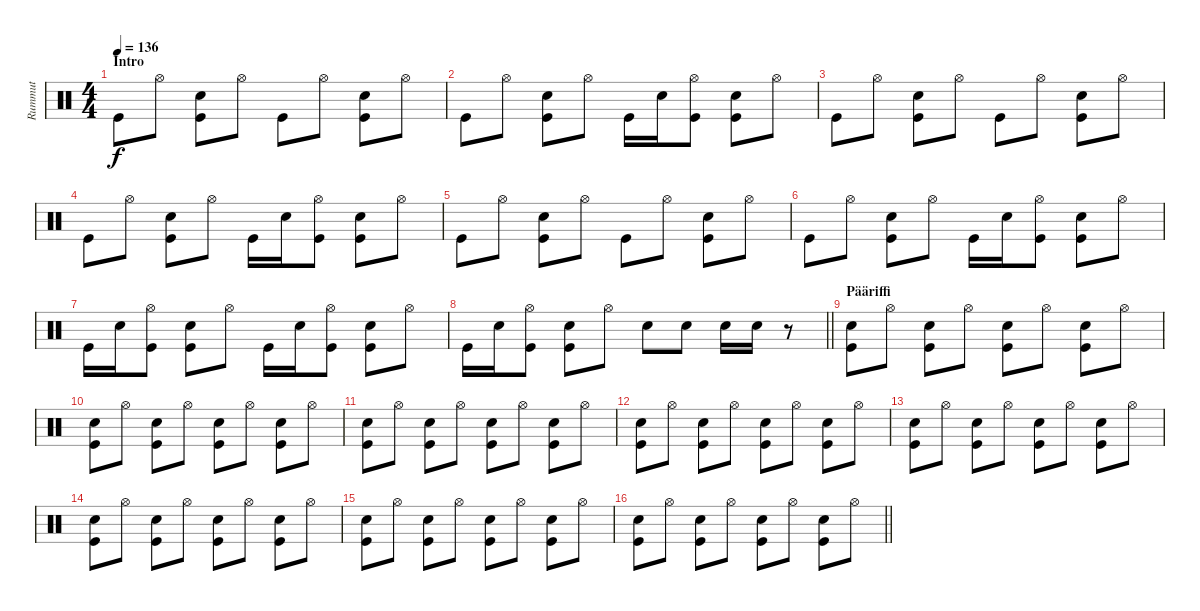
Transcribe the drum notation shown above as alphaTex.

\track ("Rummut" "Rummut") {instrument percussion}
\staff {score}
\articulation defaults
\ts (4 4)
\section ("" "Intro")
\tempo 136
\clef neutral
\ks c "Kick (hit)".8{dy f} "Hi-Hat (open)".8
("Electric Snare (hit)" "Kick (hit)").8 "Hi-Hat (open)".8 "Kick (hit)".8 "Hi-Hat (open)".8 ("Electric Snare (hit)" "Kick (hit)").8 "Hi-Hat (open)".8 |
"Kick (hit)".8 "Hi-Hat (open)".8 ("Electric Snare (hit)" "Kick (hit)").8 "Hi-Hat (open)".8 "Kick (hit)".16 "Electric Snare (hit)".16 ("Hi-Hat (open)" "Kick (hit)").8 ("Electric Snare (hit)" "Kick (hit)").8 "Hi-Hat (open)".8 |
"Kick (hit)".8 "Hi-Hat (open)".8 ("Electric Snare (hit)" "Kick (hit)").8 "Hi-Hat (open)".8 "Kick (hit)".8 "Hi-Hat (open)".8 ("Electric Snare (hit)" "Kick (hit)").8 "Hi-Hat (open)".8 |
"Kick (hit)".8 "Hi-Hat (open)".8 ("Electric Snare (hit)" "Kick (hit)").8 "Hi-Hat (open)".8 "Kick (hit)".16 "Electric Snare (hit)".16 ("Hi-Hat (open)" "Kick (hit)").8 ("Electric Snare (hit)" "Kick (hit)").8 "Hi-Hat (open)".8 |
"Kick (hit)".8 "Hi-Hat (open)".8 ("Electric Snare (hit)" "Kick (hit)").8 "Hi-Hat (open)".8 "Kick (hit)".8 "Hi-Hat (open)".8 ("Electric Snare (hit)" "Kick (hit)").8 "Hi-Hat (open)".8 |
"Kick (hit)".8 "Hi-Hat (open)".8 ("Electric Snare (hit)" "Kick (hit)").8 "Hi-Hat (open)".8 "Kick (hit)".16 "Electric Snare (hit)".16 ("Hi-Hat (open)" "Kick (hit)").8 ("Electric Snare (hit)" "Kick (hit)").8 "Hi-Hat (open)".8 |
"Kick (hit)".16 "Electric Snare (hit)".16 ("Hi-Hat (open)" "Kick (hit)").8 ("Electric Snare (hit)" "Kick (hit)").8 "Hi-Hat (open)".8 "Kick (hit)".16 "Electric Snare (hit)".16 ("Hi-Hat (open)" "Kick (hit)").8 ("Electric Snare (hit)" "Kick (hit)").8 "Hi-Hat (open)".8 |
\barLineRight lightlight "Kick (hit)".16 "Electric Snare (hit)".16
("Hi-Hat (open)" "Kick (hit)").8 ("Electric Snare (hit)" "Kick (hit)").8 "Hi-Hat (open)".8 "Electric Snare (hit)".8 "Electric Snare (hit)".8 "Electric Snare (hit)".16 "Electric Snare (hit)".16 r.8 |
\section ("" "Pääriffi")
("Electric Snare (hit)" "Kick (hit)").8 "Hi-Hat (open)".8 ("Electric Snare (hit)" "Kick (hit)").8 "Hi-Hat (open)".8 ("Electric Snare (hit)" "Kick (hit)").8 "Hi-Hat (open)".8 ("Electric Snare (hit)" "Kick (hit)").8 "Hi-Hat (open)".8 |
("Electric Snare (hit)" "Kick (hit)").8 "Hi-Hat (open)".8 ("Electric Snare (hit)" "Kick (hit)").8 "Hi-Hat (open)".8 ("Electric Snare (hit)" "Kick (hit)").8 "Hi-Hat (open)".8 ("Electric Snare (hit)" "Kick (hit)").8 "Hi-Hat (open)".8 |
("Electric Snare (hit)" "Kick (hit)").8 "Hi-Hat (open)".8 ("Electric Snare (hit)" "Kick (hit)").8 "Hi-Hat (open)".8 ("Electric Snare (hit)" "Kick (hit)").8 "Hi-Hat (open)".8 ("Electric Snare (hit)" "Kick (hit)").8 "Hi-Hat (open)".8 |
("Electric Snare (hit)" "Kick (hit)").8 "Hi-Hat (open)".8 ("Electric Snare (hit)" "Kick (hit)").8 "Hi-Hat (open)".8 ("Electric Snare (hit)" "Kick (hit)").8 "Hi-Hat (open)".8 ("Electric Snare (hit)" "Kick (hit)").8 "Hi-Hat (open)".8 |
("Electric Snare (hit)" "Kick (hit)").8 "Hi-Hat (open)".8 ("Electric Snare (hit)" "Kick (hit)").8 "Hi-Hat (open)".8 ("Electric Snare (hit)" "Kick (hit)").8 "Hi-Hat (open)".8 ("Electric Snare (hit)" "Kick (hit)").8 "Hi-Hat (open)".8 |
("Electric Snare (hit)" "Kick (hit)").8 "Hi-Hat (open)".8 ("Electric Snare (hit)" "Kick (hit)").8 "Hi-Hat (open)".8 ("Electric Snare (hit)" "Kick (hit)").8 "Hi-Hat (open)".8 ("Electric Snare (hit)" "Kick (hit)").8 "Hi-Hat (open)".8 |
("Electric Snare (hit)" "Kick (hit)").8 "Hi-Hat (open)".8 ("Electric Snare (hit)" "Kick (hit)").8 "Hi-Hat (open)".8 ("Electric Snare (hit)" "Kick (hit)").8 "Hi-Hat (open)".8 ("Electric Snare (hit)" "Kick (hit)").8 "Hi-Hat (open)".8 |
\barLineRight lightlight
("Electric Snare (hit)" "Kick (hit)").8 "Hi-Hat (open)".8 ("Electric Snare (hit)" "Kick (hit)").8 "Hi-Hat (open)".8 ("Electric Snare (hit)" "Kick (hit)").8 "Hi-Hat (open)".8 ("Electric Snare (hit)" "Kick (hit)").8 "Hi-Hat (open)".8
